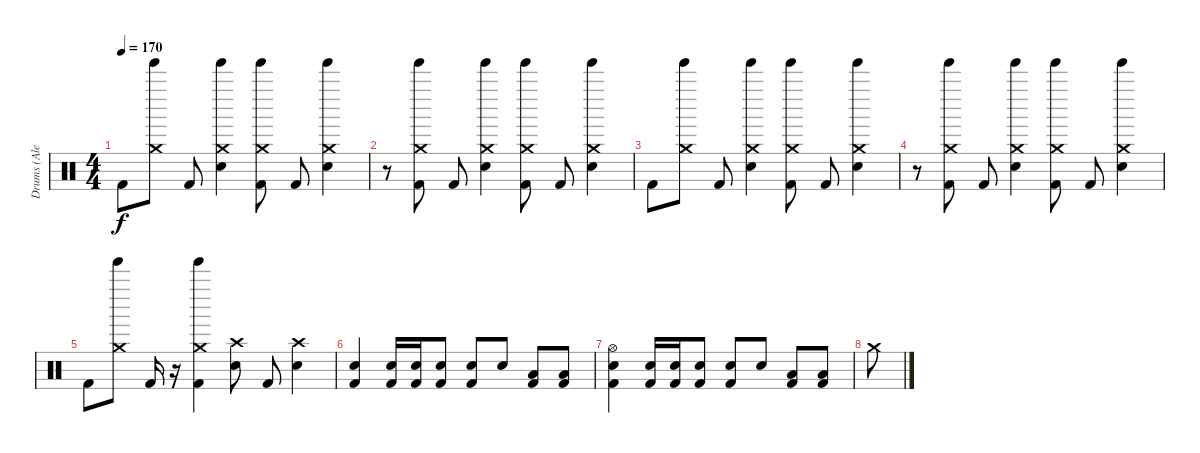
\track ("Drums (Alex Shelnutt)" "Drums (Ale") {instrument percussion}
\staff {score}
\articulation defaults
\ts (4 4)
\tempo 170
\clef neutral
\ks c "Kick (hit) 2".8{dy f}
("Tinkle Bell (hit)" "Crash medium (hit)").8 "Kick (hit) 2".8 ("Tinkle Bell (hit)" "Crash medium (hit)" "Electric Snare (hit)").4 ("Tinkle Bell (hit)" "Crash medium (hit)" "Kick (hit) 2").8 "Kick (hit) 2".8 ("Tinkle Bell (hit)" "Crash medium (hit)" "Electric Snare (hit)").4 |
r.8 ("Tinkle Bell (hit)" "Crash medium (hit)" "Kick (hit) 2").8 "Kick (hit) 2".8 ("Tinkle Bell (hit)" "Crash medium (hit)" "Electric Snare (hit)").4 ("Tinkle Bell (hit)" "Crash medium (hit)" "Kick (hit) 2").8 "Kick (hit) 2".8 ("Tinkle Bell (hit)" "Crash medium (hit)" "Electric Snare (hit)").4 |
"Kick (hit) 2".8 ("Tinkle Bell (hit)" "Crash medium (hit)").8 "Kick (hit) 2".8 ("Tinkle Bell (hit)" "Crash medium (hit)" "Electric Snare (hit)").4 ("Tinkle Bell (hit)" "Crash medium (hit)" "Kick (hit) 2").8 "Kick (hit) 2".8 ("Tinkle Bell (hit)" "Crash medium (hit)" "Electric Snare (hit)").4 |
r.8 ("Tinkle Bell (hit)" "Crash medium (hit)" "Kick (hit) 2").8 "Kick (hit) 2".8 ("Tinkle Bell (hit)" "Crash medium (hit)" "Electric Snare (hit)").4 ("Tinkle Bell (hit)" "Crash medium (hit)" "Kick (hit) 2").8 "Kick (hit) 2".8 ("Tinkle Bell (hit)" "Crash medium (hit)" "Electric Snare (hit)").4 |
"Kick (hit) 2".8 ("Tinkle Bell (hit)" "Crash medium (hit)").8 "Kick (hit) 2".16 r.16 ("Tinkle Bell (hit)" "Crash medium (hit)" "Kick (hit) 2").4 ("Crash high (hit)" "Electric Snare (hit)").8 "Kick (hit) 2".8 ("Crash high (hit)" "Electric Snare (hit)").4 |
("Electric Snare (hit)" "Kick (hit) 2").4 ("Electric Snare (hit)" "Kick (hit) 2").16 ("Electric Snare (hit)" "Kick (hit) 2").16 ("Electric Snare (hit)" "Kick (hit) 2").8 ("Electric Snare (hit)" "Kick (hit) 2").8 "Electric Snare (hit)".8 ("Low Tom (hit)" "Kick (hit) 2").8 ("Low Tom (hit)" "Kick (hit) 2").8 |
("Hi-Hat (open)" "Electric Snare (hit)" "Kick (hit) 2").4 ("Electric Snare (hit)" "Kick (hit) 2").16 ("Electric Snare (hit)" "Kick (hit) 2").16 ("Electric Snare (hit)" "Kick (hit) 2").8 ("Electric Snare (hit)" "Kick (hit) 2").8 "Electric Snare (hit)".8 ("Low Tom (hit)" "Kick (hit) 2").8 ("Low Tom (hit)" "Kick (hit) 2").8 |
"Crash medium (hit)".8
